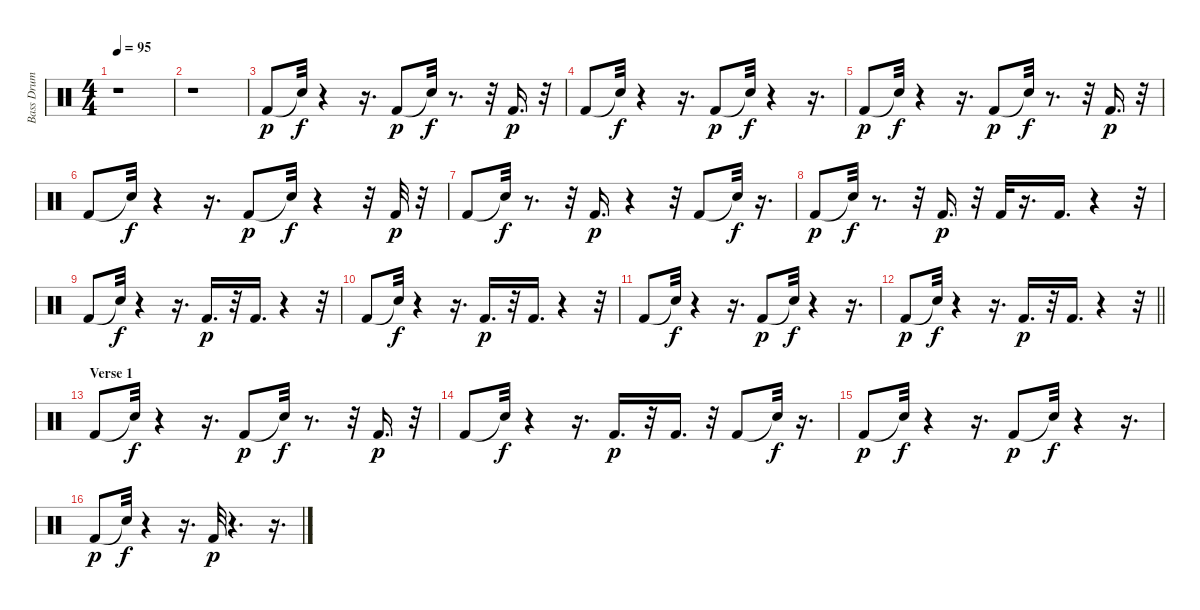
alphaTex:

\track ("Bass Drum" "Bass Drum") {instrument percussion}
\staff {score}
\articulation defaults
\ts (4 4)
\tempo 95
\clef neutral
\ks c
r.1{dy p} |
r.1 |
"Kick (hit) 2".8 "Snare (hit)"{t}.32{dy f} r.4 r.16{d} "Kick (hit) 2".8{dy p} "Snare (hit)"{t}.32{dy f} r.8{d} r.32 "Kick (hit) 2".16{d dy p} r.32 |
"Kick (hit) 2".8 "Snare (hit)"{t}.32{dy f} r.4 r.16{d} "Kick (hit) 2".8{dy p} "Snare (hit)"{t}.32{dy f} r.4 r.16{d} |
"Kick (hit) 2".8{dy p} "Snare (hit)"{t}.32{dy f} r.4 r.16{d} "Kick (hit) 2".8{dy p} "Snare (hit)"{t}.32{dy f} r.8{d} r.32 "Kick (hit) 2".16{d dy p} r.32 |
"Kick (hit) 2".8 "Snare (hit)"{t}.32{dy f} r.4 r.16{d} "Kick (hit) 2".8{dy p} "Snare (hit)"{t}.32{dy f} r.4 r.32 "Kick (hit) 2".32{dy p} r.32 |
"Kick (hit) 2".8 "Snare (hit)"{t}.32{dy f} r.8{d} r.32 "Kick (hit) 2".16{d dy p} r.4 r.32 "Kick (hit) 2".8 "Snare (hit)"{t}.32{dy f} r.16{d} |
"Kick (hit) 2".8{dy p} "Snare (hit)"{t}.32{dy f} r.8{d} r.32 "Kick (hit) 2".16{d dy p} r.32 "Kick (hit) 2".32 r.16{d} "Kick (hit) 2".16{d} r.4 r.32 |
"Kick (hit) 2".8 "Snare (hit)"{t}.32{dy f} r.4 r.16{d} "Kick (hit) 2".16{d dy p} r.32 "Kick (hit) 2".16{d} r.4 r.32 |
"Kick (hit) 2".8 "Snare (hit)"{t}.32{dy f} r.4 r.16{d} "Kick (hit) 2".16{d dy p} r.32 "Kick (hit) 2".16{d} r.4 r.32 |
"Kick (hit) 2".8 "Snare (hit)"{t}.32{dy f} r.4 r.16{d} "Kick (hit) 2".8{dy p} "Snare (hit)"{t}.32{dy f} r.4 r.16{d} |
\barLineRight lightlight "Kick (hit) 2".8{dy p} "Snare (hit)"{t}.32{dy f}
r.4 r.16{d} "Kick (hit) 2".16{d dy p} r.32 "Kick (hit) 2".16{d} r.4 r.32 |
\section ("" "Verse 1")
"Kick (hit) 2".8 "Snare (hit)"{t}.32{dy f} r.4 r.16{d} "Kick (hit) 2".8{dy p} "Snare (hit)"{t}.32{dy f} r.8{d} r.32 "Kick (hit) 2".16{d dy p} r.32 |
"Kick (hit) 2".8 "Snare (hit)"{t}.32{dy f} r.4 r.16{d} "Kick (hit) 2".16{d dy p} r.32 "Kick (hit) 2".16{d} r.32 "Kick (hit) 2".8 "Snare (hit)"{t}.32{dy f} r.16{d} |
"Kick (hit) 2".8{dy p} "Snare (hit)"{t}.32{dy f} r.4 r.16{d} "Kick (hit) 2".8{dy p} "Snare (hit)"{t}.32{dy f} r.4 r.16{d} |
"Kick (hit) 2".8{dy p} "Snare (hit)"{t}.32{dy f} r.4 r.16{d} "Kick (hit) 2".32{dy p} r.4{d} r.16{d}
